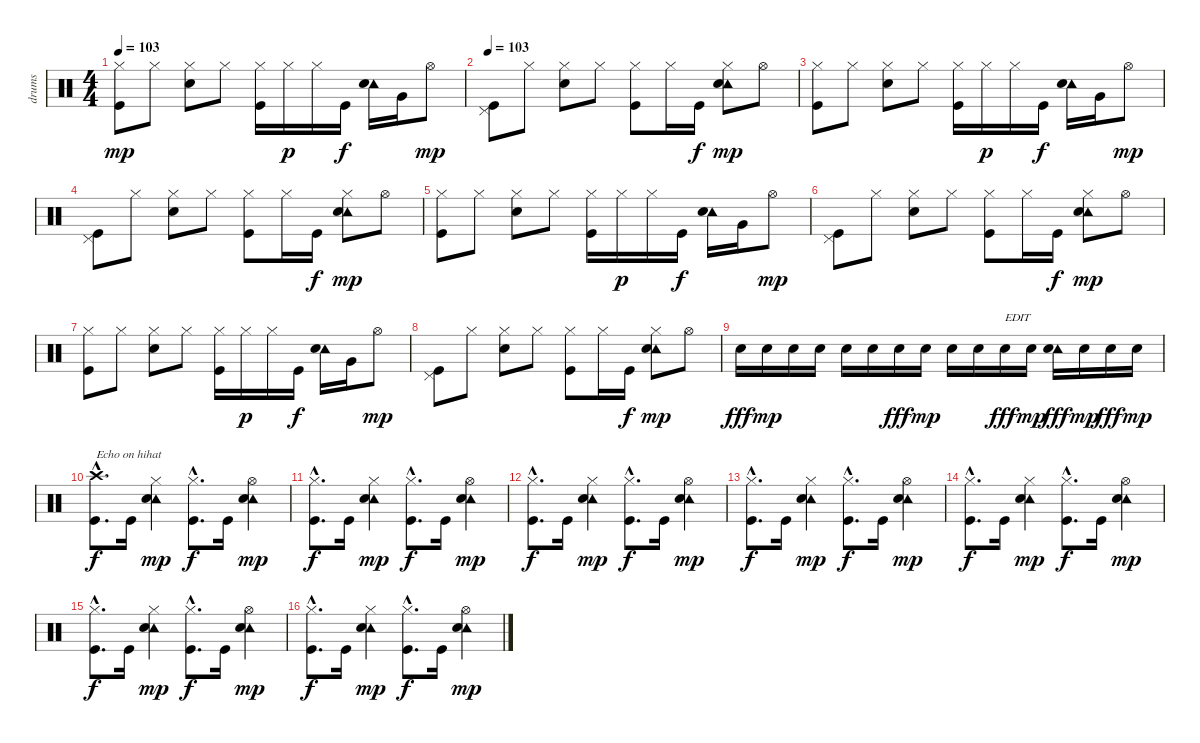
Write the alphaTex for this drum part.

\track ("drums" "drums") {instrument percussion}
\staff {score}
\articulation defaults
\ts (4 4)
\tempo 103
\clef neutral
\ks c
("Hi-Hat (closed)" "Kick (hit)").8{dy mp} "Hi-Hat (closed)".8 ("Hi-Hat (closed)" "Electric Snare (hit)").8 "Hi-Hat (closed)".8 ("Hi-Hat (closed)" "Kick (hit)").16 "Hi-Hat (closed)".16{dy p} "Hi-Hat (closed)".16 "Kick (hit)".16{dy f} ("Tambourine (hit)" "Electric Snare (hit)").16 "Very Low Tom (hit)".16 "Hi-Hat (open)".8{dy mp} |
\tempo 103
("Pedal Hi-Hat (hit)" "Kick (hit)").8 "Hi-Hat (closed)".8 ("Hi-Hat (closed)" "Electric Snare (hit)").8 "Hi-Hat (closed)".8 ("Hi-Hat (closed)" "Kick (hit)").8 "Hi-Hat (closed)".16 "Kick (hit)".16{dy f} ("Tambourine (hit)" "Hi-Hat (closed)" "Electric Snare (hit)").8{dy mp} "Hi-Hat (open)".8 |
("Hi-Hat (closed)" "Kick (hit)").8 "Hi-Hat (closed)".8 ("Hi-Hat (closed)" "Electric Snare (hit)").8 "Hi-Hat (closed)".8 ("Hi-Hat (closed)" "Kick (hit)").16 "Hi-Hat (closed)".16{dy p} "Hi-Hat (closed)".16 "Kick (hit)".16{dy f} ("Tambourine (hit)" "Electric Snare (hit)").16 "Very Low Tom (hit)".16 "Hi-Hat (open)".8{dy mp} |
("Pedal Hi-Hat (hit)" "Kick (hit)").8 "Hi-Hat (closed)".8 ("Hi-Hat (closed)" "Electric Snare (hit)").8 "Hi-Hat (closed)".8 ("Hi-Hat (closed)" "Kick (hit)").8 "Hi-Hat (closed)".16 "Kick (hit)".16{dy f} ("Tambourine (hit)" "Hi-Hat (closed)" "Electric Snare (hit)").8{dy mp} "Hi-Hat (open)".8 |
("Hi-Hat (closed)" "Kick (hit)").8 "Hi-Hat (closed)".8 ("Hi-Hat (closed)" "Electric Snare (hit)").8 "Hi-Hat (closed)".8 ("Hi-Hat (closed)" "Kick (hit)").16 "Hi-Hat (closed)".16{dy p} "Hi-Hat (closed)".16 "Kick (hit)".16{dy f} ("Tambourine (hit)" "Electric Snare (hit)").16 "Very Low Tom (hit)".16 "Hi-Hat (open)".8{dy mp} |
("Pedal Hi-Hat (hit)" "Kick (hit)").8 "Hi-Hat (closed)".8 ("Hi-Hat (closed)" "Electric Snare (hit)").8 "Hi-Hat (closed)".8 ("Hi-Hat (closed)" "Kick (hit)").8 "Hi-Hat (closed)".16 "Kick (hit)".16{dy f} ("Tambourine (hit)" "Hi-Hat (closed)" "Electric Snare (hit)").8{dy mp} "Hi-Hat (open)".8 |
("Hi-Hat (closed)" "Kick (hit)").8 "Hi-Hat (closed)".8 ("Hi-Hat (closed)" "Electric Snare (hit)").8 "Hi-Hat (closed)".8 ("Hi-Hat (closed)" "Kick (hit)").16 "Hi-Hat (closed)".16{dy p} "Hi-Hat (closed)".16 "Kick (hit)".16{dy f} ("Tambourine (hit)" "Electric Snare (hit)").16 "Very Low Tom (hit)".16 "Hi-Hat (open)".8{dy mp} |
("Pedal Hi-Hat (hit)" "Kick (hit)").8 "Hi-Hat (closed)".8 ("Hi-Hat (closed)" "Electric Snare (hit)").8 "Hi-Hat (closed)".8 ("Hi-Hat (closed)" "Kick (hit)").8 "Hi-Hat (closed)".16 "Kick (hit)".16{dy f} ("Tambourine (hit)" "Hi-Hat (closed)" "Electric Snare (hit)").8{dy mp} "Hi-Hat (open)".8 |
"Electric Snare (hit)".16{dy fff} "Electric Snare (hit)".16{dy mp} "Electric Snare (hit)".16 "Electric Snare (hit)".16 "Electric Snare (hit)".16 "Electric Snare (hit)".16 "Electric Snare (hit)".16{dy fff} "Electric Snare (hit)".16{dy mp} "Electric Snare (hit)".16 "Electric Snare (hit)".16 "Electric Snare (hit)".16{txt "EDIT" dy fff} "Electric Snare (hit)".16{dy mp} ("Tambourine (hit)" "Electric Snare (hit)").16{dy fff} "Electric Snare (hit)".16{dy mp} "Electric Snare (hit)".16{dy fff} "Electric Snare (hit)".16{dy mp} |
("Crash high (hit)"{hac} "Kick (hit)"{hac}).8{d txt "Echo on hihat" dy f} "Kick (hit)".16 ("Tambourine (hit)" "Hi-Hat (closed)" "Electric Snare (hit)").4{dy mp} ("Hi-Hat (closed)"{hac} "Kick (hit)"{hac}).8{d dy f} "Kick (hit)".16 ("Tambourine (hit)" "Hi-Hat (open)" "Electric Snare (hit)").4{dy mp} |
("Hi-Hat (closed)"{hac} "Kick (hit)"{hac}).8{d dy f} "Kick (hit)".16 ("Tambourine (hit)" "Hi-Hat (closed)" "Electric Snare (hit)").4{dy mp} ("Hi-Hat (closed)"{hac} "Kick (hit)"{hac}).8{d dy f} "Kick (hit)".16 ("Tambourine (hit)" "Hi-Hat (open)" "Electric Snare (hit)").4{dy mp} |
("Hi-Hat (closed)"{hac} "Kick (hit)"{hac}).8{d dy f} "Kick (hit)".16 ("Tambourine (hit)" "Hi-Hat (closed)" "Electric Snare (hit)").4{dy mp} ("Hi-Hat (closed)"{hac} "Kick (hit)"{hac}).8{d dy f} "Kick (hit)".16 ("Tambourine (hit)" "Hi-Hat (open)" "Electric Snare (hit)").4{dy mp} |
("Hi-Hat (closed)"{hac} "Kick (hit)"{hac}).8{d dy f} "Kick (hit)".16 ("Tambourine (hit)" "Hi-Hat (closed)" "Electric Snare (hit)").4{dy mp} ("Hi-Hat (closed)"{hac} "Kick (hit)"{hac}).8{d dy f} "Kick (hit)".16 ("Tambourine (hit)" "Hi-Hat (open)" "Electric Snare (hit)").4{dy mp} |
("Hi-Hat (closed)"{hac} "Kick (hit)"{hac}).8{d dy f} "Kick (hit)".16 ("Tambourine (hit)" "Hi-Hat (closed)" "Electric Snare (hit)").4{dy mp} ("Hi-Hat (closed)"{hac} "Kick (hit)"{hac}).8{d dy f} "Kick (hit)".16 ("Tambourine (hit)" "Hi-Hat (open)" "Electric Snare (hit)").4{dy mp} |
("Hi-Hat (closed)"{hac} "Kick (hit)"{hac}).8{d dy f} "Kick (hit)".16 ("Tambourine (hit)" "Hi-Hat (closed)" "Electric Snare (hit)").4{dy mp} ("Hi-Hat (closed)"{hac} "Kick (hit)"{hac}).8{d dy f} "Kick (hit)".16 ("Tambourine (hit)" "Hi-Hat (open)" "Electric Snare (hit)").4{dy mp} |
("Hi-Hat (closed)"{hac} "Kick (hit)"{hac}).8{d dy f} "Kick (hit)".16 ("Tambourine (hit)" "Hi-Hat (closed)" "Electric Snare (hit)").4{dy mp} ("Hi-Hat (closed)"{hac} "Kick (hit)"{hac}).8{d dy f} "Kick (hit)".16 ("Tambourine (hit)" "Hi-Hat (open)" "Electric Snare (hit)").4{dy mp}
